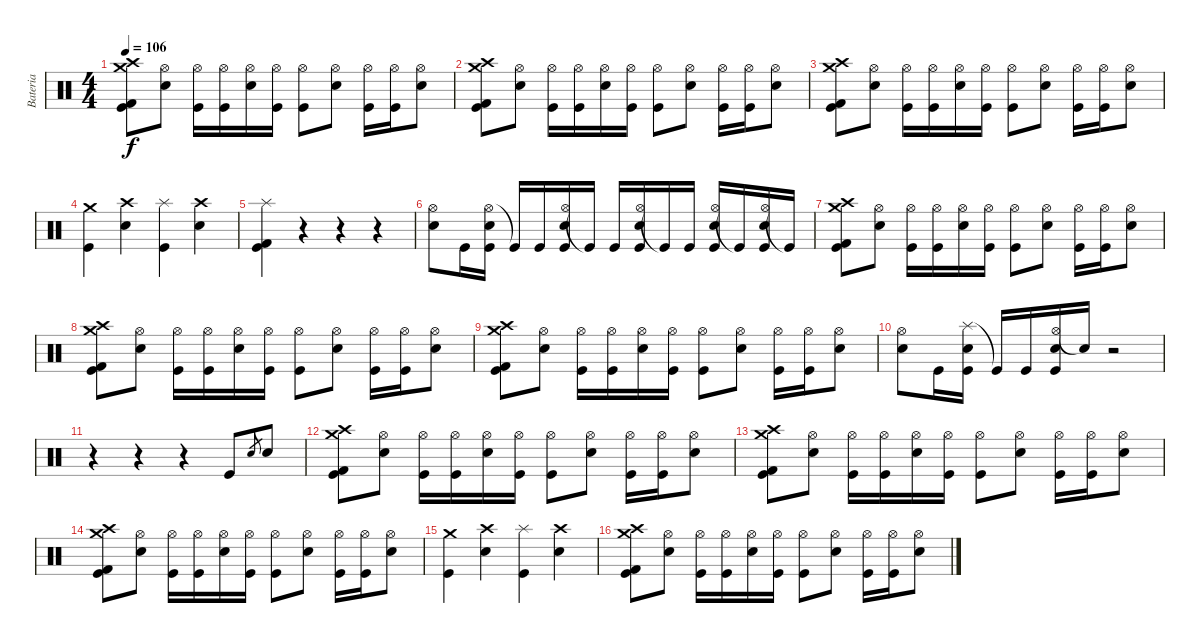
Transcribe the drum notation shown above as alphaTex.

\track ("Bateria" "Bateria") {instrument percussion}
\staff {score}
\articulation defaults
\ts (4 4)
\tempo 106
\clef neutral
\ks c
("Crash medium (hit)" "Crash high (hit)" "Kick (hit) 2" "Kick (hit)").8{dy f} ("Hi-Hat (open)" "Electric Snare (hit)").8 ("Hi-Hat (open)" "Kick (hit)").16 ("Hi-Hat (open)" "Kick (hit)").16 ("Hi-Hat (open)" "Electric Snare (hit)").16 ("Hi-Hat (open)" "Kick (hit)").16 ("Hi-Hat (open)" "Kick (hit)").8 ("Hi-Hat (open)" "Electric Snare (hit)").8 ("Hi-Hat (open)" "Kick (hit)").16 ("Hi-Hat (open)" "Kick (hit)").16 ("Hi-Hat (open)" "Electric Snare (hit)").8 |
("Crash medium (hit)" "Crash high (hit)" "Kick (hit) 2" "Kick (hit)").8 ("Hi-Hat (open)" "Electric Snare (hit)").8 ("Hi-Hat (open)" "Kick (hit)").16 ("Hi-Hat (open)" "Kick (hit)").16 ("Hi-Hat (open)" "Electric Snare (hit)").16 ("Hi-Hat (open)" "Kick (hit)").16 ("Hi-Hat (open)" "Kick (hit)").8 ("Hi-Hat (open)" "Electric Snare (hit)").8 ("Hi-Hat (open)" "Kick (hit)").16 ("Hi-Hat (open)" "Kick (hit)").16 ("Hi-Hat (open)" "Electric Snare (hit)").8 |
("Crash medium (hit)" "Crash high (hit)" "Kick (hit) 2" "Kick (hit)").8 ("Hi-Hat (open)" "Electric Snare (hit)").8 ("Hi-Hat (open)" "Kick (hit)").16 ("Hi-Hat (open)" "Kick (hit)").16 ("Hi-Hat (open)" "Electric Snare (hit)").16 ("Hi-Hat (open)" "Kick (hit)").16 ("Hi-Hat (open)" "Kick (hit)").8 ("Hi-Hat (open)" "Electric Snare (hit)").8 ("Hi-Hat (open)" "Kick (hit)").16 ("Hi-Hat (open)" "Kick (hit)").16 ("Hi-Hat (open)" "Electric Snare (hit)").8 |
("Crash medium (hit)" "Kick (hit)").4 ("Crash high (hit)" "Electric Snare (hit)").4 ("Splash (hit)" "Kick (hit)").4 ("Crash high (hit)" "Electric Snare (hit)").4 |
("Splash (hit)" "Kick (hit) 2" "Kick (hit)").4 r.4 r.4 r.4 |
("Hi-Hat (open)" "Electric Snare (hit)").8 "Kick (hit)".16 ("Hi-Hat (open)" "Electric Snare (hit)" "Kick (hit)").16 "Kick (hit)"{t}.16 "Kick (hit)".16 ("Hi-Hat (open)" "Electric Snare (hit)" "Kick (hit)").16 "Kick (hit)"{t}.16 "Kick (hit)".16 ("Hi-Hat (open)" "Electric Snare (hit)" "Kick (hit)").16 "Kick (hit)"{t}.16 "Kick (hit)".16 ("Hi-Hat (open)" "Electric Snare (hit)" "Kick (hit)").16 "Kick (hit)"{t}.16 ("Hi-Hat (open)" "Electric Snare (hit)" "Kick (hit)").16 "Kick (hit)"{t}.16 |
("Crash medium (hit)" "Crash high (hit)" "Kick (hit) 2" "Kick (hit)").8 ("Hi-Hat (open)" "Electric Snare (hit)").8 ("Hi-Hat (open)" "Kick (hit)").16 ("Hi-Hat (open)" "Kick (hit)").16 ("Hi-Hat (open)" "Electric Snare (hit)").16 ("Hi-Hat (open)" "Kick (hit)").16 ("Hi-Hat (open)" "Kick (hit)").8 ("Hi-Hat (open)" "Electric Snare (hit)").8 ("Hi-Hat (open)" "Kick (hit)").16 ("Hi-Hat (open)" "Kick (hit)").16 ("Hi-Hat (open)" "Electric Snare (hit)").8 |
("Crash medium (hit)" "Crash high (hit)" "Kick (hit) 2" "Kick (hit)").8 ("Hi-Hat (open)" "Electric Snare (hit)").8 ("Hi-Hat (open)" "Kick (hit)").16 ("Hi-Hat (open)" "Kick (hit)").16 ("Hi-Hat (open)" "Electric Snare (hit)").16 ("Hi-Hat (open)" "Kick (hit)").16 ("Hi-Hat (open)" "Kick (hit)").8 ("Hi-Hat (open)" "Electric Snare (hit)").8 ("Hi-Hat (open)" "Kick (hit)").16 ("Hi-Hat (open)" "Kick (hit)").16 ("Hi-Hat (open)" "Electric Snare (hit)").8 |
("Crash medium (hit)" "Crash high (hit)" "Kick (hit) 2" "Kick (hit)").8 ("Hi-Hat (open)" "Electric Snare (hit)").8 ("Hi-Hat (open)" "Kick (hit)").16 ("Hi-Hat (open)" "Kick (hit)").16 ("Hi-Hat (open)" "Electric Snare (hit)").16 ("Hi-Hat (open)" "Kick (hit)").16 ("Hi-Hat (open)" "Kick (hit)").8 ("Hi-Hat (open)" "Electric Snare (hit)").8 ("Hi-Hat (open)" "Kick (hit)").16 ("Hi-Hat (open)" "Kick (hit)").16 ("Hi-Hat (open)" "Electric Snare (hit)").8 |
("Hi-Hat (open)" "Electric Snare (hit)").8 "Kick (hit)".16 ("Splash (hit)" "Electric Snare (hit)" "Kick (hit)").16 "Kick (hit)"{t}.16 "Kick (hit)".16 ("Hi-Hat (open)" "Electric Snare (hit)" "Kick (hit)").16 "Snare (hit)"{t}.16 r.2 |
r.4 r.4 r.4 "Kick (hit)".8 "Electric Snare (hit)".8{gr} "Electric Snare (hit)".8 |
("Crash medium (hit)" "Crash high (hit)" "Kick (hit) 2" "Kick (hit)").8 ("Hi-Hat (open)" "Electric Snare (hit)").8 ("Hi-Hat (open)" "Kick (hit)").16 ("Hi-Hat (open)" "Kick (hit)").16 ("Hi-Hat (open)" "Electric Snare (hit)").16 ("Hi-Hat (open)" "Kick (hit)").16 ("Hi-Hat (open)" "Kick (hit)").8 ("Hi-Hat (open)" "Electric Snare (hit)").8 ("Hi-Hat (open)" "Kick (hit)").16 ("Hi-Hat (open)" "Kick (hit)").16 ("Hi-Hat (open)" "Electric Snare (hit)").8 |
("Crash medium (hit)" "Crash high (hit)" "Kick (hit) 2" "Kick (hit)").8 ("Hi-Hat (open)" "Electric Snare (hit)").8 ("Hi-Hat (open)" "Kick (hit)").16 ("Hi-Hat (open)" "Kick (hit)").16 ("Hi-Hat (open)" "Electric Snare (hit)").16 ("Hi-Hat (open)" "Kick (hit)").16 ("Hi-Hat (open)" "Kick (hit)").8 ("Hi-Hat (open)" "Electric Snare (hit)").8 ("Hi-Hat (open)" "Kick (hit)").16 ("Hi-Hat (open)" "Kick (hit)").16 ("Hi-Hat (open)" "Electric Snare (hit)").8 |
("Crash medium (hit)" "Crash high (hit)" "Kick (hit) 2" "Kick (hit)").8 ("Hi-Hat (open)" "Electric Snare (hit)").8 ("Hi-Hat (open)" "Kick (hit)").16 ("Hi-Hat (open)" "Kick (hit)").16 ("Hi-Hat (open)" "Electric Snare (hit)").16 ("Hi-Hat (open)" "Kick (hit)").16 ("Hi-Hat (open)" "Kick (hit)").8 ("Hi-Hat (open)" "Electric Snare (hit)").8 ("Hi-Hat (open)" "Kick (hit)").16 ("Hi-Hat (open)" "Kick (hit)").16 ("Hi-Hat (open)" "Electric Snare (hit)").8 |
("Crash medium (hit)" "Kick (hit)").4 ("Crash high (hit)" "Electric Snare (hit)").4 ("Splash (hit)" "Kick (hit)").4 ("Crash high (hit)" "Electric Snare (hit)").4 |
("Crash medium (hit)" "Crash high (hit)" "Kick (hit) 2" "Kick (hit)").8 ("Hi-Hat (open)" "Electric Snare (hit)").8 ("Hi-Hat (open)" "Kick (hit)").16 ("Hi-Hat (open)" "Kick (hit)").16 ("Hi-Hat (open)" "Electric Snare (hit)").16 ("Hi-Hat (open)" "Kick (hit)").16 ("Hi-Hat (open)" "Kick (hit)").8 ("Hi-Hat (open)" "Electric Snare (hit)").8 ("Hi-Hat (open)" "Kick (hit)").16 ("Hi-Hat (open)" "Kick (hit)").16 ("Hi-Hat (open)" "Electric Snare (hit)").8
